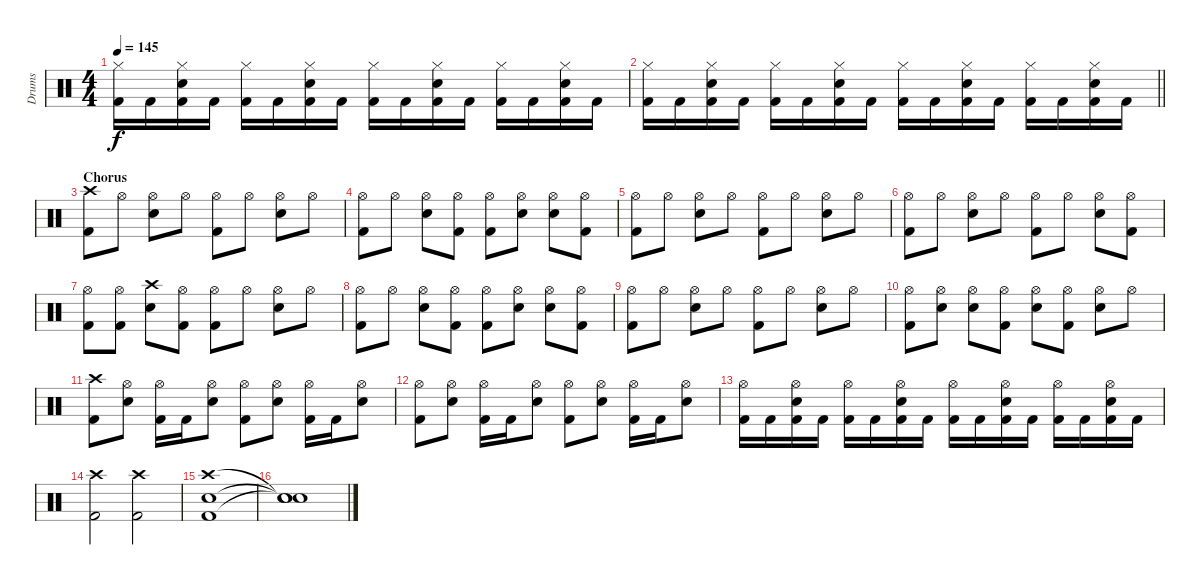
\track ("Drums" "Drums") {instrument percussion}
\staff {score}
\articulation defaults
\ts (4 4)
\tempo 145
\clef neutral
\ks c
("Hi-Hat (closed)" "Kick (hit) 2").16{dy f} "Kick (hit) 2".16 ("Hi-Hat (closed)" "Kick (hit) 2" "Snare (hit) 2").16 "Kick (hit) 2".16 ("Hi-Hat (closed)" "Kick (hit) 2").16 "Kick (hit) 2".16 ("Hi-Hat (closed)" "Kick (hit) 2" "Snare (hit) 2").16 "Kick (hit) 2".16 ("Hi-Hat (closed)" "Kick (hit) 2").16 "Kick (hit) 2".16 ("Hi-Hat (closed)" "Kick (hit) 2" "Snare (hit) 2").16 "Kick (hit) 2".16 ("Hi-Hat (closed)" "Kick (hit) 2").16 "Kick (hit) 2".16 ("Hi-Hat (closed)" "Kick (hit) 2" "Snare (hit) 2").16 "Kick (hit) 2".16 |
\barLineRight lightlight
("Hi-Hat (closed)" "Kick (hit) 2").16 "Kick (hit) 2".16 ("Hi-Hat (closed)" "Kick (hit) 2" "Snare (hit) 2").16 "Kick (hit) 2".16 ("Hi-Hat (closed)" "Kick (hit) 2").16 "Kick (hit) 2".16 ("Hi-Hat (closed)" "Kick (hit) 2" "Snare (hit) 2").16 "Kick (hit) 2".16 ("Hi-Hat (closed)" "Kick (hit) 2").16 "Kick (hit) 2".16 ("Hi-Hat (closed)" "Kick (hit) 2" "Snare (hit) 2").16 "Kick (hit) 2".16 ("Hi-Hat (closed)" "Kick (hit) 2").16 "Kick (hit) 2".16 ("Hi-Hat (closed)" "Kick (hit) 2" "Snare (hit) 2").16 "Kick (hit) 2".16 |
\section ("" "Chorus")
("Crash high (hit)" "Kick (hit) 2").8 "Hi-Hat (open)".8 ("Hi-Hat (open)" "Snare (hit) 2").8 "Hi-Hat (open)".8 ("Hi-Hat (open)" "Kick (hit) 2").8 "Hi-Hat (open)".8 ("Hi-Hat (open)" "Snare (hit) 2").8 "Hi-Hat (open)".8 |
("Hi-Hat (open)" "Kick (hit) 2").8 "Hi-Hat (open)".8 ("Hi-Hat (open)" "Snare (hit) 2").8 ("Hi-Hat (open)" "Kick (hit) 2").8 ("Hi-Hat (open)" "Kick (hit) 2").8 ("Hi-Hat (open)" "Snare (hit) 2").8 ("Hi-Hat (open)" "Snare (hit) 2").8 ("Hi-Hat (open)" "Kick (hit) 2").8 |
("Hi-Hat (open)" "Kick (hit) 2").8 "Hi-Hat (open)".8 ("Hi-Hat (open)" "Snare (hit) 2").8 "Hi-Hat (open)".8 ("Hi-Hat (open)" "Kick (hit) 2").8 "Hi-Hat (open)".8 ("Hi-Hat (open)" "Snare (hit) 2").8 "Hi-Hat (open)".8 |
("Hi-Hat (open)" "Kick (hit) 2").8 "Hi-Hat (open)".8 ("Hi-Hat (open)" "Snare (hit) 2").8 "Hi-Hat (open)".8 ("Hi-Hat (open)" "Kick (hit) 2").8 "Hi-Hat (open)".8 ("Hi-Hat (open)" "Snare (hit) 2").8 ("Hi-Hat (open)" "Kick (hit) 2").8 |
("Hi-Hat (open)" "Kick (hit) 2").8 ("Hi-Hat (open)" "Kick (hit) 2").8 ("Crash high (hit)" "Snare (hit) 2").8 ("Hi-Hat (open)" "Kick (hit) 2").8 ("Hi-Hat (open)" "Kick (hit) 2").8 "Hi-Hat (open)".8 ("Hi-Hat (open)" "Snare (hit) 2").8 "Hi-Hat (open)".8 |
("Hi-Hat (open)" "Kick (hit) 2").8 "Hi-Hat (open)".8 ("Hi-Hat (open)" "Snare (hit) 2").8 ("Hi-Hat (open)" "Kick (hit) 2").8 ("Hi-Hat (open)" "Kick (hit) 2").8 ("Hi-Hat (open)" "Snare (hit) 2").8 ("Hi-Hat (open)" "Snare (hit) 2").8 ("Hi-Hat (open)" "Kick (hit) 2").8 |
("Hi-Hat (open)" "Kick (hit) 2").8 "Hi-Hat (open)".8 ("Hi-Hat (open)" "Snare (hit) 2").8 "Hi-Hat (open)".8 ("Hi-Hat (open)" "Kick (hit) 2").8 "Hi-Hat (open)".8 ("Hi-Hat (open)" "Snare (hit) 2").8 "Hi-Hat (open)".8 |
("Hi-Hat (open)" "Kick (hit) 2").8 ("Hi-Hat (open)" "Snare (hit) 2").8 ("Hi-Hat (open)" "Snare (hit) 2").8 ("Hi-Hat (open)" "Kick (hit) 2").8 ("Hi-Hat (open)" "Snare (hit) 2").8 ("Hi-Hat (open)" "Kick (hit) 2").8 ("Hi-Hat (open)" "Snare (hit) 2").8 "Hi-Hat (open)".8 |
("Crash high (hit)" "Kick (hit) 2").8 ("Hi-Hat (open)" "Snare (hit) 2").8 ("Hi-Hat (open)" "Kick (hit) 2").16 "Kick (hit) 2".16 ("Hi-Hat (open)" "Snare (hit) 2").8 ("Hi-Hat (open)" "Kick (hit) 2").8 ("Hi-Hat (open)" "Snare (hit) 2").8 ("Hi-Hat (open)" "Kick (hit) 2").16 "Kick (hit) 2".16 ("Hi-Hat (open)" "Snare (hit) 2").8 |
("Hi-Hat (open)" "Kick (hit) 2").8 ("Hi-Hat (open)" "Snare (hit) 2").8 ("Hi-Hat (open)" "Kick (hit) 2").16 "Kick (hit) 2".16 ("Hi-Hat (open)" "Snare (hit) 2").8 ("Hi-Hat (open)" "Kick (hit) 2").8 ("Hi-Hat (open)" "Snare (hit) 2").8 ("Hi-Hat (open)" "Kick (hit) 2").16 "Kick (hit) 2".16 ("Hi-Hat (open)" "Snare (hit) 2").8 |
("Hi-Hat (open)" "Kick (hit) 2").16 "Kick (hit) 2".16 ("Hi-Hat (open)" "Kick (hit) 2" "Snare (hit) 2").16 "Kick (hit) 2".16 ("Hi-Hat (open)" "Kick (hit) 2").16 "Kick (hit) 2".16 ("Hi-Hat (open)" "Kick (hit) 2" "Snare (hit) 2").16 "Kick (hit) 2".16 ("Hi-Hat (open)" "Kick (hit) 2").16 "Kick (hit) 2".16 ("Hi-Hat (open)" "Kick (hit) 2" "Snare (hit) 2").16 "Kick (hit) 2".16 ("Hi-Hat (open)" "Kick (hit) 2").16 "Kick (hit) 2".16 ("Hi-Hat (open)" "Kick (hit) 2" "Snare (hit) 2").16 "Kick (hit) 2".16 |
("Crash high (hit)" "Kick (hit) 2").2 ("Crash high (hit)" "Kick (hit) 2").2 |
("Crash high (hit)" "Snare (hit) 2" "Kick (hit) 2").1 |
("Snare (hit)"{t} "Snare (hit)"{t} "Snare (hit)"{t}).1{volume 0}
